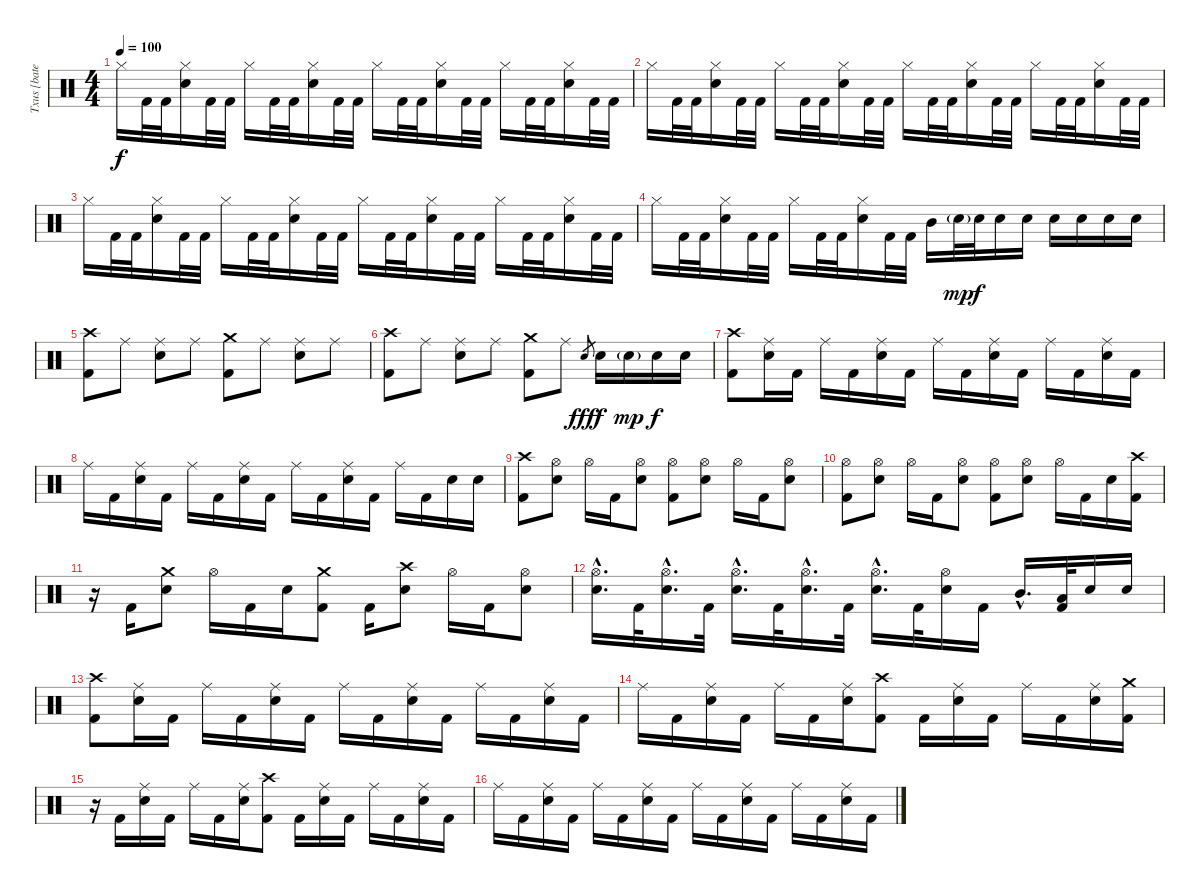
\track ("Txus [bateria]" "Txus [bate") {instrument percussion}
\staff {score}
\articulation defaults
\ts (4 4)
\tempo 100
\clef neutral
\ks c "Hi-Hat (closed)".16{dy f} "Kick (hit) 2".32 "Kick (hit) 2".32
("Hi-Hat (closed)" "Snare (hit) 2").16 "Kick (hit) 2".32 "Kick (hit) 2".32 "Hi-Hat (closed)".16 "Kick (hit) 2".32 "Kick (hit) 2".32 ("Hi-Hat (closed)" "Snare (hit) 2").16 "Kick (hit) 2".32 "Kick (hit) 2".32 "Hi-Hat (closed)".16 "Kick (hit) 2".32 "Kick (hit) 2".32 ("Hi-Hat (closed)" "Snare (hit) 2").16 "Kick (hit) 2".32 "Kick (hit) 2".32 "Hi-Hat (closed)".16 "Kick (hit) 2".32 "Kick (hit) 2".32 ("Hi-Hat (closed)" "Snare (hit) 2").16 "Kick (hit) 2".32 "Kick (hit) 2".32 |
"Hi-Hat (closed)".16 "Kick (hit) 2".32 "Kick (hit) 2".32 ("Hi-Hat (closed)" "Snare (hit) 2").16 "Kick (hit) 2".32 "Kick (hit) 2".32 "Hi-Hat (closed)".16 "Kick (hit) 2".32 "Kick (hit) 2".32 ("Hi-Hat (closed)" "Snare (hit) 2").16 "Kick (hit) 2".32 "Kick (hit) 2".32 "Hi-Hat (closed)".16 "Kick (hit) 2".32 "Kick (hit) 2".32 ("Hi-Hat (closed)" "Snare (hit) 2").16 "Kick (hit) 2".32 "Kick (hit) 2".32 "Hi-Hat (closed)".16 "Kick (hit) 2".32 "Kick (hit) 2".32 ("Hi-Hat (closed)" "Snare (hit) 2").16 "Kick (hit) 2".32 "Kick (hit) 2".32 |
"Hi-Hat (closed)".16 "Kick (hit) 2".32 "Kick (hit) 2".32 ("Hi-Hat (closed)" "Snare (hit) 2").16 "Kick (hit) 2".32 "Kick (hit) 2".32 "Hi-Hat (closed)".16 "Kick (hit) 2".32 "Kick (hit) 2".32 ("Hi-Hat (closed)" "Snare (hit) 2").16 "Kick (hit) 2".32 "Kick (hit) 2".32 "Hi-Hat (closed)".16 "Kick (hit) 2".32 "Kick (hit) 2".32 ("Hi-Hat (closed)" "Snare (hit) 2").16 "Kick (hit) 2".32 "Kick (hit) 2".32 "Hi-Hat (closed)".16 "Kick (hit) 2".32 "Kick (hit) 2".32 ("Hi-Hat (closed)" "Snare (hit) 2").16 "Kick (hit) 2".32 "Kick (hit) 2".32 |
"Hi-Hat (closed)".16 "Kick (hit) 2".32 "Kick (hit) 2".32 ("Hi-Hat (closed)" "Snare (hit) 2").16 "Kick (hit) 2".32 "Kick (hit) 2".32 "Hi-Hat (closed)".16 "Kick (hit) 2".32 "Kick (hit) 2".32 ("Hi-Hat (closed)" "Snare (hit) 2").16 "Kick (hit) 2".32 "Kick (hit) 2".32 "Mid Tom (hit)".16 "Snare (hit) 2"{g}.32{dy mp} "Snare (hit) 2".32{dy f} "Snare (hit) 2".16 "Snare (hit) 2".16 "Snare (hit) 2".16 "Snare (hit) 2".16 "Snare (hit) 2".16 "Snare (hit) 2".16 |
("Crash high (hit)" "Kick (hit) 2").8 "Ride (middle)".8 ("Ride (middle)" "Snare (hit) 2").8 "Ride (middle)".8 ("Crash medium (hit)" "Kick (hit) 2").8 "Ride (middle)".8 ("Ride (middle)" "Snare (hit) 2").8 "Ride (middle)".8 |
("Crash high (hit)" "Kick (hit) 2").8 "Ride (middle)".8 ("Ride (middle)" "Snare (hit) 2").8 "Ride (middle)".8 ("Crash medium (hit)" "Kick (hit) 2").8 "Ride (middle)".8 "Snare (hit) 2".8{gr dy fff} "Snare (hit) 2".16{dy f} "Snare (hit) 2"{g}.16{dy mp} "Snare (hit) 2".16{dy f} "Snare (hit) 2".16 |
("Crash high (hit)" "Kick (hit) 2").8 ("Ride (middle)" "Snare (hit) 2").16 "Kick (hit) 2".16 "Ride (middle)".16 "Kick (hit) 2".16 ("Ride (middle)" "Snare (hit) 2").16 "Kick (hit) 2".16 "Ride (middle)".16 "Kick (hit) 2".16 ("Ride (middle)" "Snare (hit) 2").16 "Kick (hit) 2".16 "Ride (middle)".16 "Kick (hit) 2".16 ("Ride (middle)" "Snare (hit) 2").16 "Kick (hit) 2".16 |
"Ride (middle)".16 "Kick (hit) 2".16 ("Ride (middle)" "Snare (hit) 2").16 "Kick (hit) 2".16 "Ride (middle)".16 "Kick (hit) 2".16 ("Ride (middle)" "Snare (hit) 2").16 "Kick (hit) 2".16 "Ride (middle)".16 "Kick (hit) 2".16 ("Ride (middle)" "Snare (hit) 2").16 "Kick (hit) 2".16 "Ride (middle)".16 "Kick (hit) 2".16 "Snare (hit) 2".16 "Snare (hit) 2".16 |
("Crash high (hit)" "Kick (hit) 2").8 ("Hi-Hat (open)" "Snare (hit) 2").8 "Hi-Hat (open)".16 "Kick (hit) 2".16 ("Hi-Hat (open)" "Snare (hit) 2").8 ("Hi-Hat (open)" "Kick (hit) 2").8 ("Hi-Hat (open)" "Snare (hit) 2").8 "Hi-Hat (open)".16 "Kick (hit) 2".16 ("Hi-Hat (open)" "Snare (hit) 2").8 |
("Hi-Hat (open)" "Kick (hit) 2").8 ("Hi-Hat (open)" "Snare (hit) 2").8 "Hi-Hat (open)".16 "Kick (hit) 2".16 ("Hi-Hat (open)" "Snare (hit) 2").8 ("Hi-Hat (open)" "Kick (hit) 2").8 ("Hi-Hat (open)" "Snare (hit) 2").8 "Hi-Hat (open)".16 "Kick (hit) 2".16 "Snare (hit) 2".16 ("Crash high (hit)" "Kick (hit) 2").16 |
r.16 "Kick (hit) 2".16 ("Crash medium (hit)" "Snare (hit) 2").8 "Hi-Hat (open)".16 "Kick (hit) 2".16 "Snare (hit) 2".16 ("Crash medium (hit)" "Kick (hit) 2").8 "Kick (hit) 2".16 ("Crash high (hit)" "Snare (hit) 2").8 "Hi-Hat (open)".16 "Kick (hit) 2".16 ("Hi-Hat (open)" "Snare (hit) 2").8 |
("Hi-Hat (open)"{hac} "Snare (hit) 2"{hac}).16{d} "Kick (hit) 2".32 ("Hi-Hat (open)"{hac} "Snare (hit) 2"{hac}).16{d} "Kick (hit) 2".32 ("Hi-Hat (open)"{hac} "Snare (hit) 2"{hac}).16{d} "Kick (hit) 2".32 ("Hi-Hat (open)"{hac} "Snare (hit) 2"{hac}).16{d} "Kick (hit) 2".32 ("Hi-Hat (open)"{hac} "Snare (hit) 2"{hac}).16{d} "Kick (hit) 2".32 ("Hi-Hat (open)" "Snare (hit) 2").16 "Kick (hit) 2".16 "Mid Tom (hit)"{hac}.16{d} ("Low Tom (hit)" "Kick (hit) 2").32 "Snare (hit) 2".16 "Snare (hit) 2".16 |
("Crash high (hit)" "Kick (hit) 2").8 ("Ride (middle)" "Snare (hit) 2").16 "Kick (hit) 2".16 "Ride (middle)".16 "Kick (hit) 2".16 ("Ride (middle)" "Snare (hit) 2").16 "Kick (hit) 2".16 "Ride (middle)".16 "Kick (hit) 2".16 ("Ride (middle)" "Snare (hit) 2").16 "Kick (hit) 2".16 "Ride (middle)".16 "Kick (hit) 2".16 ("Ride (middle)" "Snare (hit) 2").16 "Kick (hit) 2".16 |
"Ride (middle)".16 "Kick (hit) 2".16 ("Ride (middle)" "Snare (hit) 2").16 "Kick (hit) 2".16 "Ride (middle)".16 "Kick (hit) 2".16 ("Ride (middle)" "Snare (hit) 2").16 ("Crash high (hit)" "Kick (hit) 2").8 "Kick (hit) 2".16 ("Ride (middle)" "Snare (hit) 2").16 "Kick (hit) 2".16 "Ride (middle)".16 "Kick (hit) 2".16 ("Ride (middle)" "Snare (hit) 2").16 ("Crash medium (hit)" "Kick (hit) 2").16 |
r.16 "Kick (hit) 2".16 ("Ride (middle)" "Snare (hit) 2").16 "Kick (hit) 2".16 "Ride (middle)".16 "Kick (hit) 2".16 ("Ride (middle)" "Snare (hit) 2").16 ("Crash high (hit)" "Kick (hit) 2").8 "Kick (hit) 2".16 ("Ride (middle)" "Snare (hit) 2").16 "Kick (hit) 2".16 "Ride (middle)".16 "Kick (hit) 2".16 ("Ride (middle)" "Snare (hit) 2").16 "Kick (hit) 2".16 |
"Ride (middle)".16 "Kick (hit) 2".16 ("Ride (middle)" "Snare (hit) 2").16 "Kick (hit) 2".16 "Ride (middle)".16 "Kick (hit) 2".16 ("Ride (middle)" "Snare (hit) 2").16 "Kick (hit) 2".16 "Ride (middle)".16 "Kick (hit) 2".16 ("Ride (middle)" "Snare (hit) 2").16 "Kick (hit) 2".16 "Ride (middle)".16 "Kick (hit) 2".16 ("Ride (middle)" "Snare (hit) 2").16 "Kick (hit) 2".16
